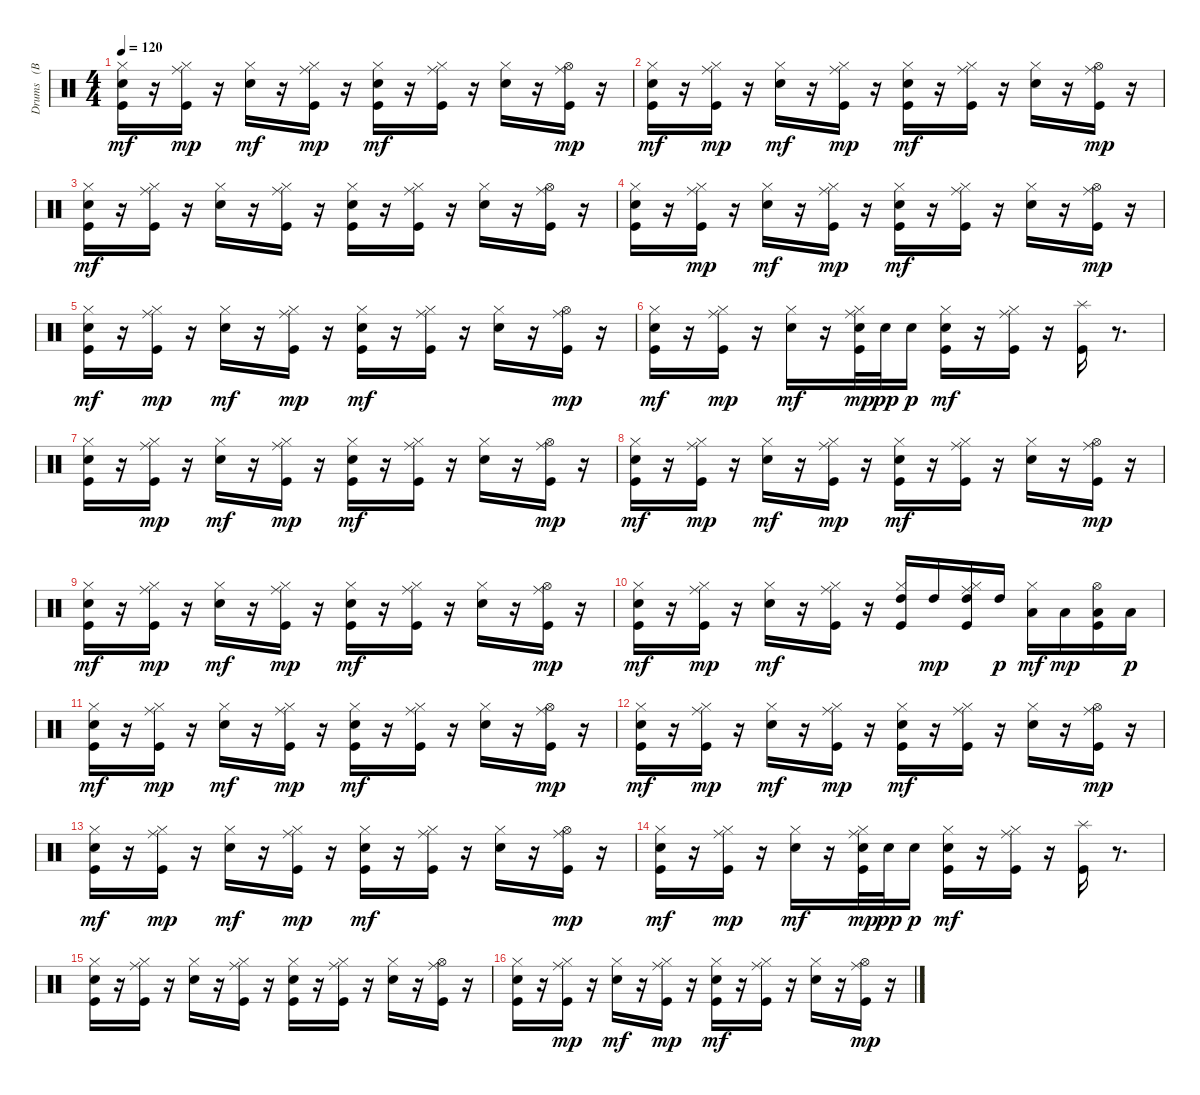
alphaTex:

\track ("Drums   (BB)" "Drums   (B") {instrument percussion}
\staff {score}
\articulation defaults
\ts (4 4)
\tempo 120
\clef neutral
\ks c
("Kick (hit)" "Electric Snare (hit)" "Hi-Hat (closed)").16{dy mf} r.16 ("Kick (hit)" "Hi-Hat (closed)" "Ride (middle)").16{dy mp} r.16 ("Electric Snare (hit)" "Hi-Hat (closed)").16{dy mf} r.16 ("Kick (hit)" "Hi-Hat (closed)" "Ride (middle)").16{dy mp} r.16 ("Kick (hit)" "Electric Snare (hit)" "Hi-Hat (closed)").16{dy mf} r.16 ("Kick (hit)" "Hi-Hat (closed)" "Ride (middle)").16 r.16 ("Electric Snare (hit)" "Hi-Hat (closed)").16 r.16 ("Kick (hit)" "Hi-Hat (open)" "Ride (middle)").16{dy mp} r.16 |
("Kick (hit)" "Electric Snare (hit)" "Hi-Hat (closed)").16{dy mf} r.16 ("Kick (hit)" "Hi-Hat (closed)" "Ride (middle)").16{dy mp} r.16 ("Electric Snare (hit)" "Hi-Hat (closed)").16{dy mf} r.16 ("Kick (hit)" "Hi-Hat (closed)" "Ride (middle)").16{dy mp} r.16 ("Kick (hit)" "Electric Snare (hit)" "Hi-Hat (closed)").16{dy mf} r.16 ("Kick (hit)" "Hi-Hat (closed)" "Ride (middle)").16 r.16 ("Electric Snare (hit)" "Hi-Hat (closed)").16 r.16 ("Kick (hit)" "Hi-Hat (open)" "Ride (middle)").16{dy mp} r.16 |
("Kick (hit)" "Electric Snare (hit)" "Hi-Hat (closed)").16{dy mf} r.16 ("Kick (hit)" "Hi-Hat (closed)" "Ride (middle)").16 r.16 ("Electric Snare (hit)" "Hi-Hat (closed)").16 r.16 ("Kick (hit)" "Hi-Hat (closed)" "Ride (middle)").16 r.16 ("Kick (hit)" "Electric Snare (hit)" "Hi-Hat (closed)").16 r.16 ("Kick (hit)" "Hi-Hat (closed)" "Ride (middle)").16 r.16 ("Electric Snare (hit)" "Hi-Hat (closed)").16 r.16 ("Kick (hit)" "Hi-Hat (open)" "Ride (middle)").16 r.16 |
("Kick (hit)" "Electric Snare (hit)" "Hi-Hat (closed)").16 r.16 ("Kick (hit)" "Hi-Hat (closed)" "Ride (middle)").16{dy mp} r.16 ("Electric Snare (hit)" "Hi-Hat (closed)").16{dy mf} r.16 ("Kick (hit)" "Hi-Hat (closed)" "Ride (middle)").16{dy mp} r.16 ("Kick (hit)" "Electric Snare (hit)" "Hi-Hat (closed)").16{dy mf} r.16 ("Kick (hit)" "Hi-Hat (closed)" "Ride (middle)").16 r.16 ("Electric Snare (hit)" "Hi-Hat (closed)").16 r.16 ("Kick (hit)" "Hi-Hat (open)" "Ride (middle)").16{dy mp} r.16 |
("Kick (hit)" "Electric Snare (hit)" "Hi-Hat (closed)").16{dy mf} r.16 ("Kick (hit)" "Hi-Hat (closed)" "Ride (middle)").16{dy mp} r.16 ("Electric Snare (hit)" "Hi-Hat (closed)").16{dy mf} r.16 ("Kick (hit)" "Hi-Hat (closed)" "Ride (middle)").16{dy mp} r.16 ("Kick (hit)" "Electric Snare (hit)" "Hi-Hat (closed)").16{dy mf} r.16 ("Kick (hit)" "Hi-Hat (closed)" "Ride (middle)").16 r.16 ("Electric Snare (hit)" "Hi-Hat (closed)").16 r.16 ("Kick (hit)" "Hi-Hat (open)" "Ride (middle)").16{dy mp} r.16 |
("Kick (hit)" "Electric Snare (hit)" "Hi-Hat (closed)").16{dy mf} r.16 ("Kick (hit)" "Hi-Hat (closed)" "Ride (middle)").16{dy mp} r.16 ("Electric Snare (hit)" "Hi-Hat (closed)").16{dy mf} r.16 ("Kick (hit)" "Electric Snare (hit)" "Hi-Hat (closed)" "Ride (middle)").32{dy mp} "Electric Snare (hit)".32{dy pp} "Electric Snare (hit)".16{dy p} ("Kick (hit)" "Electric Snare (hit)" "Hi-Hat (closed)").16{dy mf} r.16 ("Kick (hit)" "Hi-Hat (closed)" "Ride (middle)").16 r.16 ("Kick (hit)" "Splash (hit)").16 r.8{d} |
("Kick (hit)" "Electric Snare (hit)" "Hi-Hat (closed)").16 r.16 ("Kick (hit)" "Hi-Hat (closed)" "Ride (middle)").16{dy mp} r.16 ("Electric Snare (hit)" "Hi-Hat (closed)").16{dy mf} r.16 ("Kick (hit)" "Hi-Hat (closed)" "Ride (middle)").16{dy mp} r.16 ("Kick (hit)" "Electric Snare (hit)" "Hi-Hat (closed)").16{dy mf} r.16 ("Kick (hit)" "Hi-Hat (closed)" "Ride (middle)").16 r.16 ("Electric Snare (hit)" "Hi-Hat (closed)").16 r.16 ("Kick (hit)" "Hi-Hat (open)" "Ride (middle)").16{dy mp} r.16 |
("Kick (hit)" "Electric Snare (hit)" "Hi-Hat (closed)").16{dy mf} r.16 ("Kick (hit)" "Hi-Hat (closed)" "Ride (middle)").16{dy mp} r.16 ("Electric Snare (hit)" "Hi-Hat (closed)").16{dy mf} r.16 ("Kick (hit)" "Hi-Hat (closed)" "Ride (middle)").16{dy mp} r.16 ("Kick (hit)" "Electric Snare (hit)" "Hi-Hat (closed)").16{dy mf} r.16 ("Kick (hit)" "Hi-Hat (closed)" "Ride (middle)").16 r.16 ("Electric Snare (hit)" "Hi-Hat (closed)").16 r.16 ("Kick (hit)" "Hi-Hat (open)" "Ride (middle)").16{dy mp} r.16 |
("Kick (hit)" "Electric Snare (hit)" "Hi-Hat (closed)").16{dy mf} r.16 ("Kick (hit)" "Hi-Hat (closed)" "Ride (middle)").16{dy mp} r.16 ("Electric Snare (hit)" "Hi-Hat (closed)").16{dy mf} r.16 ("Kick (hit)" "Hi-Hat (closed)" "Ride (middle)").16{dy mp} r.16 ("Kick (hit)" "Electric Snare (hit)" "Hi-Hat (closed)").16{dy mf} r.16 ("Kick (hit)" "Hi-Hat (closed)" "Ride (middle)").16 r.16 ("Electric Snare (hit)" "Hi-Hat (closed)").16 r.16 ("Kick (hit)" "Hi-Hat (open)" "Ride (middle)").16{dy mp} r.16 |
("Kick (hit)" "Electric Snare (hit)" "Hi-Hat (closed)").16{dy mf} r.16 ("Kick (hit)" "Hi-Hat (closed)" "Ride (middle)").16{dy mp} r.16 ("Electric Snare (hit)" "Hi-Hat (closed)").16{dy mf} r.16 ("Kick (hit)" "Hi-Hat (closed)" "Ride (middle)").16 r.16 ("Kick (hit)" "Hi-Hat (closed)" "High Tom (hit)").16 "High Tom (hit)".16{dy mp} ("Kick (hit)" "Hi-Hat (closed)" "Ride (middle)" "High Tom (hit)").16 "High Tom (hit)".16{dy p} ("Hi-Hat (closed)" "Low Tom (hit)").16{dy mf} "Low Tom (hit)".16{dy mp} ("Kick (hit)" "Hi-Hat (open)" "Low Tom (hit)").16 "Low Tom (hit)".16{dy p} |
("Kick (hit)" "Electric Snare (hit)" "Hi-Hat (closed)").16{dy mf} r.16 ("Kick (hit)" "Hi-Hat (closed)" "Ride (middle)").16{dy mp} r.16 ("Electric Snare (hit)" "Hi-Hat (closed)").16{dy mf} r.16 ("Kick (hit)" "Hi-Hat (closed)" "Ride (middle)").16{dy mp} r.16 ("Kick (hit)" "Electric Snare (hit)" "Hi-Hat (closed)").16{dy mf} r.16 ("Kick (hit)" "Hi-Hat (closed)" "Ride (middle)").16 r.16 ("Electric Snare (hit)" "Hi-Hat (closed)").16 r.16 ("Kick (hit)" "Hi-Hat (open)" "Ride (middle)").16{dy mp} r.16 |
("Kick (hit)" "Electric Snare (hit)" "Hi-Hat (closed)").16{dy mf} r.16 ("Kick (hit)" "Hi-Hat (closed)" "Ride (middle)").16{dy mp} r.16 ("Electric Snare (hit)" "Hi-Hat (closed)").16{dy mf} r.16 ("Kick (hit)" "Hi-Hat (closed)" "Ride (middle)").16{dy mp} r.16 ("Kick (hit)" "Electric Snare (hit)" "Hi-Hat (closed)").16{dy mf} r.16 ("Kick (hit)" "Hi-Hat (closed)" "Ride (middle)").16 r.16 ("Electric Snare (hit)" "Hi-Hat (closed)").16 r.16 ("Kick (hit)" "Hi-Hat (open)" "Ride (middle)").16{dy mp} r.16 |
("Kick (hit)" "Electric Snare (hit)" "Hi-Hat (closed)").16{dy mf} r.16 ("Kick (hit)" "Hi-Hat (closed)" "Ride (middle)").16{dy mp} r.16 ("Electric Snare (hit)" "Hi-Hat (closed)").16{dy mf} r.16 ("Kick (hit)" "Hi-Hat (closed)" "Ride (middle)").16{dy mp} r.16 ("Kick (hit)" "Electric Snare (hit)" "Hi-Hat (closed)").16{dy mf} r.16 ("Kick (hit)" "Hi-Hat (closed)" "Ride (middle)").16 r.16 ("Electric Snare (hit)" "Hi-Hat (closed)").16 r.16 ("Kick (hit)" "Hi-Hat (open)" "Ride (middle)").16{dy mp} r.16 |
("Kick (hit)" "Electric Snare (hit)" "Hi-Hat (closed)").16{dy mf} r.16 ("Kick (hit)" "Hi-Hat (closed)" "Ride (middle)").16{dy mp} r.16 ("Electric Snare (hit)" "Hi-Hat (closed)").16{dy mf} r.16 ("Kick (hit)" "Electric Snare (hit)" "Hi-Hat (closed)" "Ride (middle)").32{dy mp} "Electric Snare (hit)".32{dy pp} "Electric Snare (hit)".16{dy p} ("Kick (hit)" "Electric Snare (hit)" "Hi-Hat (closed)").16{dy mf} r.16 ("Kick (hit)" "Hi-Hat (closed)" "Ride (middle)").16 r.16 ("Kick (hit)" "Splash (hit)").16 r.8{d} |
("Kick (hit)" "Electric Snare (hit)" "Hi-Hat (closed)").16 r.16 ("Kick (hit)" "Hi-Hat (closed)" "Ride (middle)").16 r.16 ("Electric Snare (hit)" "Hi-Hat (closed)").16 r.16 ("Kick (hit)" "Hi-Hat (closed)" "Ride (middle)").16 r.16 ("Kick (hit)" "Electric Snare (hit)" "Hi-Hat (closed)").16 r.16 ("Kick (hit)" "Hi-Hat (closed)" "Ride (middle)").16 r.16 ("Electric Snare (hit)" "Hi-Hat (closed)").16 r.16 ("Kick (hit)" "Hi-Hat (open)" "Ride (middle)").16 r.16 |
("Kick (hit)" "Electric Snare (hit)" "Hi-Hat (closed)").16 r.16 ("Kick (hit)" "Hi-Hat (closed)" "Ride (middle)").16{dy mp} r.16 ("Electric Snare (hit)" "Hi-Hat (closed)").16{dy mf} r.16 ("Kick (hit)" "Hi-Hat (closed)" "Ride (middle)").16{dy mp} r.16 ("Kick (hit)" "Electric Snare (hit)" "Hi-Hat (closed)").16{dy mf} r.16 ("Kick (hit)" "Hi-Hat (closed)" "Ride (middle)").16 r.16 ("Electric Snare (hit)" "Hi-Hat (closed)").16 r.16 ("Kick (hit)" "Hi-Hat (open)" "Ride (middle)").16{dy mp} r.16
